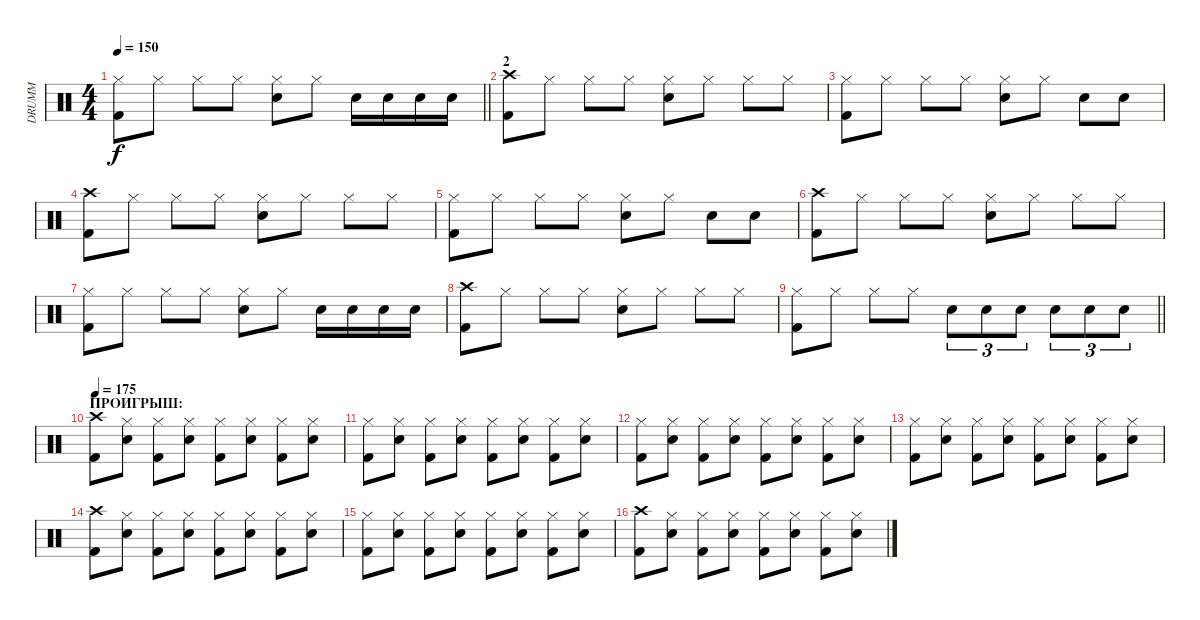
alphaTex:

\track ("DRUMM" "DRUMM") {instrument percussion}
\staff {score}
\articulation defaults
\ts (4 4)
\tempo 150
\clef neutral
\barLineRight lightlight
\ks c
("Hi-Hat (closed)" "Kick (hit) 2").8{dy f} "Hi-Hat (closed)".8 "Hi-Hat (closed)".8 "Hi-Hat (closed)".8 ("Hi-Hat (closed)" "Electric Snare (hit)").8 "Hi-Hat (closed)".8 "Electric Snare (hit)".16 "Electric Snare (hit)".16 "Electric Snare (hit)".16 "Electric Snare (hit)".16 |
\section ("" "2")
("Crash high (hit)" "Kick (hit) 2").8 "Hi-Hat (closed)".8 "Hi-Hat (closed)".8 "Hi-Hat (closed)".8 ("Hi-Hat (closed)" "Electric Snare (hit)").8 "Hi-Hat (closed)".8 "Hi-Hat (closed)".8 "Hi-Hat (closed)".8 |
("Hi-Hat (closed)" "Kick (hit) 2").8 "Hi-Hat (closed)".8 "Hi-Hat (closed)".8 "Hi-Hat (closed)".8 ("Hi-Hat (closed)" "Electric Snare (hit)").8 "Hi-Hat (closed)".8 "Electric Snare (hit)".8 "Electric Snare (hit)".8 |
("Crash high (hit)" "Kick (hit) 2").8 "Hi-Hat (closed)".8 "Hi-Hat (closed)".8 "Hi-Hat (closed)".8 ("Hi-Hat (closed)" "Electric Snare (hit)").8 "Hi-Hat (closed)".8 "Hi-Hat (closed)".8 "Hi-Hat (closed)".8 |
("Hi-Hat (closed)" "Kick (hit) 2").8 "Hi-Hat (closed)".8 "Hi-Hat (closed)".8 "Hi-Hat (closed)".8 ("Hi-Hat (closed)" "Electric Snare (hit)").8 "Hi-Hat (closed)".8 "Electric Snare (hit)".8 "Electric Snare (hit)".8 |
("Crash high (hit)" "Kick (hit) 2").8 "Hi-Hat (closed)".8 "Hi-Hat (closed)".8 "Hi-Hat (closed)".8 ("Hi-Hat (closed)" "Electric Snare (hit)").8 "Hi-Hat (closed)".8 "Hi-Hat (closed)".8 "Hi-Hat (closed)".8 |
("Hi-Hat (closed)" "Kick (hit) 2").8 "Hi-Hat (closed)".8 "Hi-Hat (closed)".8 "Hi-Hat (closed)".8 ("Hi-Hat (closed)" "Electric Snare (hit)").8 "Hi-Hat (closed)".8 "Electric Snare (hit)".16 "Electric Snare (hit)".16 "Electric Snare (hit)".16 "Electric Snare (hit)".16 |
("Crash high (hit)" "Kick (hit) 2").8 "Hi-Hat (closed)".8 "Hi-Hat (closed)".8 "Hi-Hat (closed)".8 ("Hi-Hat (closed)" "Electric Snare (hit)").8 "Hi-Hat (closed)".8 "Hi-Hat (closed)".8 "Hi-Hat (closed)".8 |
\barLineRight lightlight
("Hi-Hat (closed)" "Kick (hit) 2").8 "Hi-Hat (closed)".8 "Hi-Hat (closed)".8 "Hi-Hat (closed)".8 "Electric Snare (hit)".8{tu (3 2)} "Electric Snare (hit)".8{tu (3 2)} "Electric Snare (hit)".8{tu (3 2)} "Electric Snare (hit)".8{tu (3 2)} "Electric Snare (hit)".8{tu (3 2)} "Electric Snare (hit)".8{tu (3 2)} |
\section ("" "ПРОИГРЫШ:")
\tempo 175
("Crash high (hit)" "Kick (hit) 2").8 ("Hi-Hat (closed)" "Electric Snare (hit)").8 ("Hi-Hat (closed)" "Kick (hit) 2").8 ("Hi-Hat (closed)" "Electric Snare (hit)").8 ("Hi-Hat (closed)" "Kick (hit) 2").8 ("Hi-Hat (closed)" "Electric Snare (hit)").8 ("Hi-Hat (closed)" "Kick (hit) 2").8 ("Hi-Hat (closed)" "Electric Snare (hit)").8 |
("Hi-Hat (closed)" "Kick (hit) 2").8 ("Hi-Hat (closed)" "Electric Snare (hit)").8 ("Hi-Hat (closed)" "Kick (hit) 2").8 ("Hi-Hat (closed)" "Electric Snare (hit)").8 ("Hi-Hat (closed)" "Kick (hit) 2").8 ("Hi-Hat (closed)" "Electric Snare (hit)").8 ("Hi-Hat (closed)" "Kick (hit) 2").8 ("Hi-Hat (closed)" "Electric Snare (hit)").8 |
("Hi-Hat (closed)" "Kick (hit) 2").8 ("Hi-Hat (closed)" "Electric Snare (hit)").8 ("Hi-Hat (closed)" "Kick (hit) 2").8 ("Hi-Hat (closed)" "Electric Snare (hit)").8 ("Hi-Hat (closed)" "Kick (hit) 2").8 ("Hi-Hat (closed)" "Electric Snare (hit)").8 ("Hi-Hat (closed)" "Kick (hit) 2").8 ("Hi-Hat (closed)" "Electric Snare (hit)").8 |
("Hi-Hat (closed)" "Kick (hit) 2").8 ("Hi-Hat (closed)" "Electric Snare (hit)").8 ("Hi-Hat (closed)" "Kick (hit) 2").8 ("Hi-Hat (closed)" "Electric Snare (hit)").8 ("Hi-Hat (closed)" "Kick (hit) 2").8 ("Hi-Hat (closed)" "Electric Snare (hit)").8 ("Hi-Hat (closed)" "Kick (hit) 2").8 ("Hi-Hat (closed)" "Electric Snare (hit)").8 |
("Crash high (hit)" "Kick (hit) 2").8 ("Hi-Hat (closed)" "Electric Snare (hit)").8 ("Hi-Hat (closed)" "Kick (hit) 2").8 ("Hi-Hat (closed)" "Electric Snare (hit)").8 ("Hi-Hat (closed)" "Kick (hit) 2").8 ("Hi-Hat (closed)" "Electric Snare (hit)").8 ("Hi-Hat (closed)" "Kick (hit) 2").8 ("Hi-Hat (closed)" "Electric Snare (hit)").8 |
("Hi-Hat (closed)" "Kick (hit) 2").8 ("Hi-Hat (closed)" "Electric Snare (hit)").8 ("Hi-Hat (closed)" "Kick (hit) 2").8 ("Hi-Hat (closed)" "Electric Snare (hit)").8 ("Hi-Hat (closed)" "Kick (hit) 2").8 ("Hi-Hat (closed)" "Electric Snare (hit)").8 ("Hi-Hat (closed)" "Kick (hit) 2").8 ("Hi-Hat (closed)" "Electric Snare (hit)").8 |
("Crash high (hit)" "Kick (hit) 2").8 ("Hi-Hat (closed)" "Electric Snare (hit)").8 ("Hi-Hat (closed)" "Kick (hit) 2").8 ("Hi-Hat (closed)" "Electric Snare (hit)").8 ("Hi-Hat (closed)" "Kick (hit) 2").8 ("Hi-Hat (closed)" "Electric Snare (hit)").8 ("Hi-Hat (closed)" "Kick (hit) 2").8 ("Hi-Hat (closed)" "Electric Snare (hit)").8
